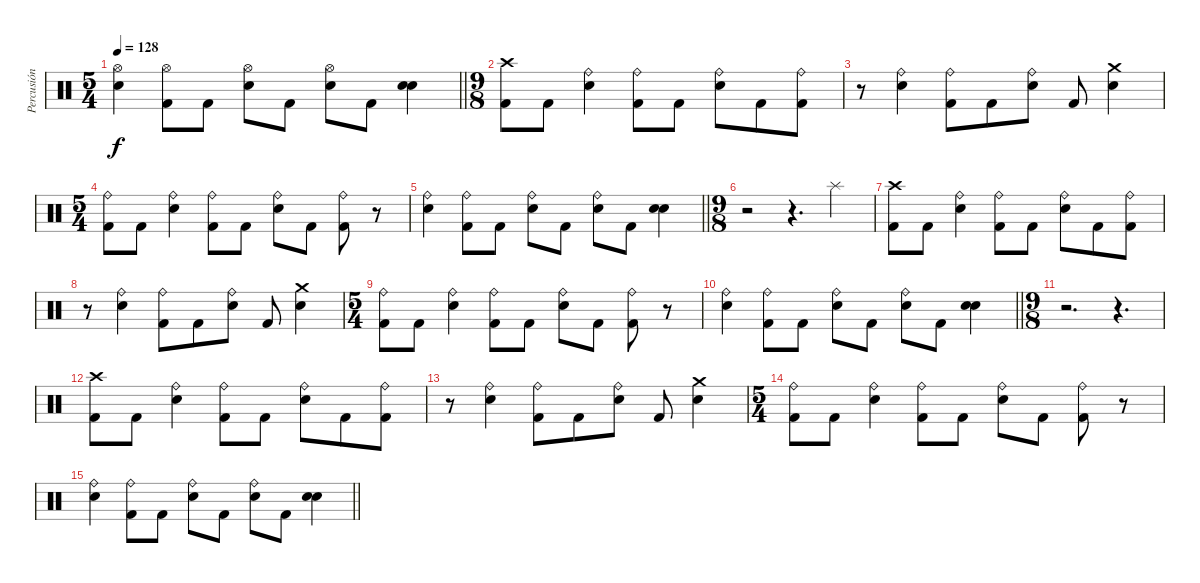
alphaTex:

\track ("Percusión" "Percusión") {instrument percussion}
\staff
\articulation defaults
\ts (5 4)
\tempo 128
\clef neutral
\barLineRight lightlight
\ks c
("Electric Snare (hit)" "Hi-Hat (open)").4{dy f} ("Kick (hit) 2" "Hi-Hat (open)").8 "Kick (hit) 2".8 ("Electric Snare (hit)" "Hi-Hat (open)").8 "Kick (hit) 2".8 ("Electric Snare (hit)" "Hi-Hat (open)").8 "Kick (hit) 2".8 ("Electric Snare (hit)" "Snare (hit) 2").4 |
\ts (9 8)
("Kick (hit) 2" "Crash high (hit)").8 "Kick (hit) 2".8 ("Electric Snare (hit)" "Ride (bell)").4 ("Kick (hit) 2" "Ride (bell)").8 "Kick (hit) 2".8 ("Electric Snare (hit)" "Ride (bell)").8 "Kick (hit) 2".8 ("Kick (hit) 2" "Ride (bell)").8 |
r.8 ("Electric Snare (hit)" "Ride (bell)").4 ("Kick (hit) 2" "Ride (bell)").8 "Kick (hit) 2".8 ("Electric Snare (hit)" "Ride (bell)").8 "Kick (hit) 2".8 ("Electric Snare (hit)" "Crash medium (hit)").4 |
\ts (5 4)
("Kick (hit) 2" "Ride (bell)").8 "Kick (hit) 2".8 ("Electric Snare (hit)" "Ride (bell)").4 ("Kick (hit) 2" "Ride (bell)").8 "Kick (hit) 2".8 ("Electric Snare (hit)" "Ride (bell)").8 "Kick (hit) 2".8 ("Kick (hit) 2" "Ride (bell)").8 r.8 |
\barLineRight lightlight
("Electric Snare (hit)" "Ride (bell)").4 ("Kick (hit) 2" "Ride (bell)").8 "Kick (hit) 2".8 ("Electric Snare (hit)" "Ride (bell)").8 "Kick (hit) 2".8 ("Electric Snare (hit)" "Ride (bell)").8 "Kick (hit) 2".8 ("Electric Snare (hit)" "Snare (hit) 2").4 |
\ts (9 8)
r.2 r.4{d} "Splash (hit)".4 |
("Kick (hit) 2" "Crash high (hit)").8 "Kick (hit) 2".8 ("Electric Snare (hit)" "Ride (bell)").4 ("Kick (hit) 2" "Ride (bell)").8 "Kick (hit) 2".8 ("Electric Snare (hit)" "Ride (bell)").8 "Kick (hit) 2".8 ("Kick (hit) 2" "Ride (bell)").8 |
r.8 ("Electric Snare (hit)" "Ride (bell)").4 ("Kick (hit) 2" "Ride (bell)").8 "Kick (hit) 2".8 ("Electric Snare (hit)" "Ride (bell)").8 "Kick (hit) 2".8 ("Electric Snare (hit)" "Crash medium (hit)").4 |
\ts (5 4)
("Kick (hit) 2" "Ride (bell)").8 "Kick (hit) 2".8 ("Electric Snare (hit)" "Ride (bell)").4 ("Kick (hit) 2" "Ride (bell)").8 "Kick (hit) 2".8 ("Electric Snare (hit)" "Ride (bell)").8 "Kick (hit) 2".8 ("Kick (hit) 2" "Ride (bell)").8 r.8 |
\barLineRight lightlight
("Electric Snare (hit)" "Ride (bell)").4 ("Kick (hit) 2" "Ride (bell)").8 "Kick (hit) 2".8 ("Electric Snare (hit)" "Ride (bell)").8 "Kick (hit) 2".8 ("Electric Snare (hit)" "Ride (bell)").8 "Kick (hit) 2".8 ("Electric Snare (hit)" "Snare (hit) 2").4 |
\ts (9 8)
r.2{d} r.4{d} |
("Kick (hit) 2" "Crash high (hit)").8 "Kick (hit) 2".8 ("Electric Snare (hit)" "Ride (bell)").4 ("Kick (hit) 2" "Ride (bell)").8 "Kick (hit) 2".8 ("Electric Snare (hit)" "Ride (bell)").8 "Kick (hit) 2".8 ("Kick (hit) 2" "Ride (bell)").8 |
r.8 ("Electric Snare (hit)" "Ride (bell)").4 ("Kick (hit) 2" "Ride (bell)").8 "Kick (hit) 2".8 ("Electric Snare (hit)" "Ride (bell)").8 "Kick (hit) 2".8 ("Electric Snare (hit)" "Crash medium (hit)").4 |
\ts (5 4)
("Kick (hit) 2" "Ride (bell)").8 "Kick (hit) 2".8 ("Electric Snare (hit)" "Ride (bell)").4 ("Kick (hit) 2" "Ride (bell)").8 "Kick (hit) 2".8 ("Electric Snare (hit)" "Ride (bell)").8 "Kick (hit) 2".8 ("Kick (hit) 2" "Ride (bell)").8 r.8 |
\barLineRight lightlight
("Electric Snare (hit)" "Ride (bell)").4 ("Kick (hit) 2" "Ride (bell)").8 "Kick (hit) 2".8 ("Electric Snare (hit)" "Ride (bell)").8 "Kick (hit) 2".8 ("Electric Snare (hit)" "Ride (bell)").8 "Kick (hit) 2".8 ("Electric Snare (hit)" "Snare (hit) 2").4
